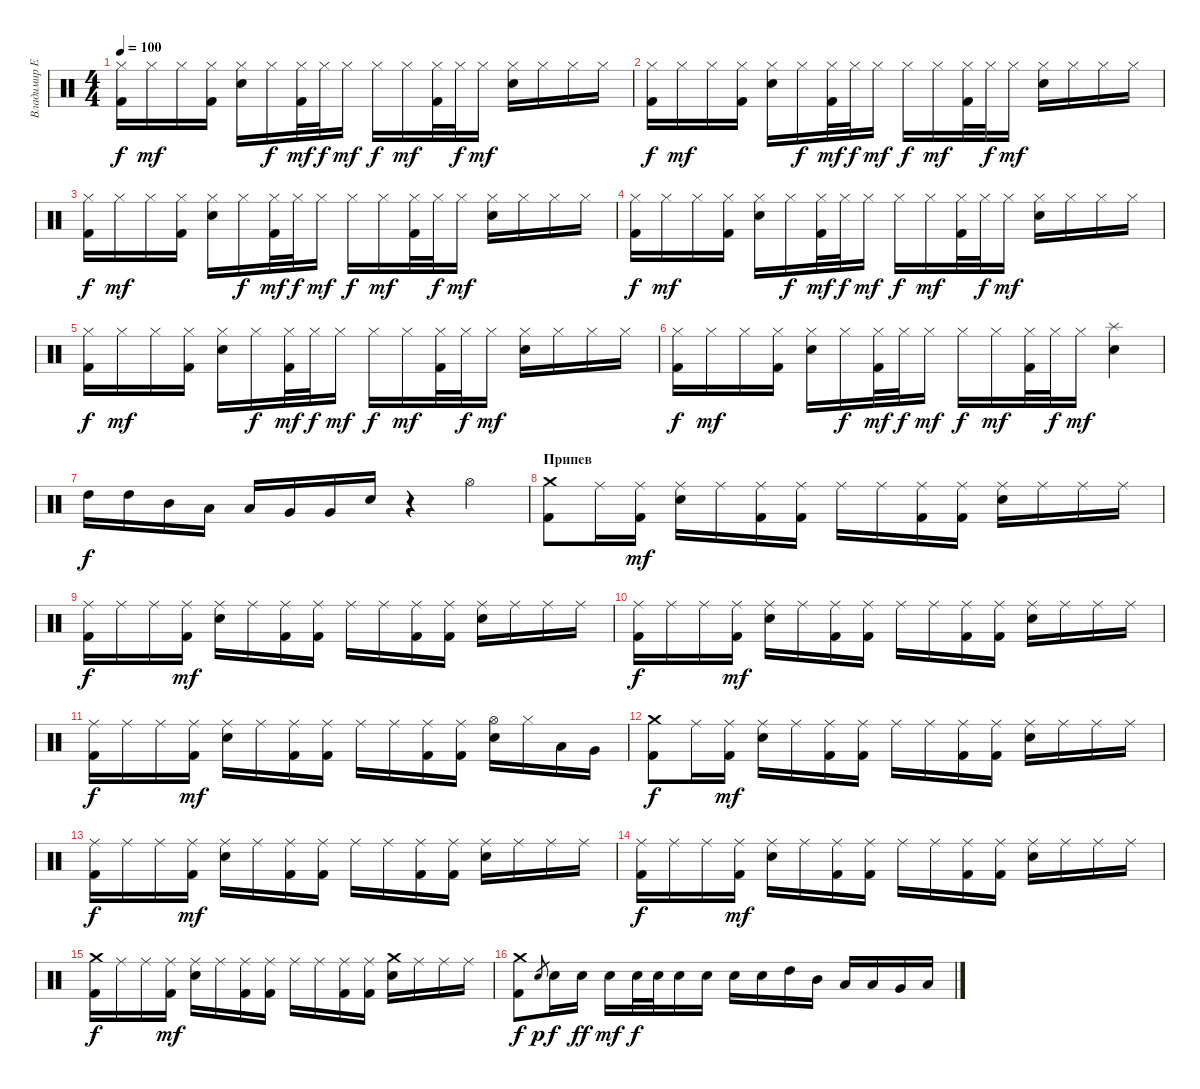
\track ("Владимир Ермаков" "Владимир Е") {instrument percussion}
\staff {score}
\articulation defaults
\ts (4 4)
\tempo 100
\clef neutral
\ks c
("Kick (hit) 2" "Hi-Hat (closed)").16{dy f} "Hi-Hat (closed)".16{dy mf} "Hi-Hat (closed)".16 ("Kick (hit) 2" "Hi-Hat (closed)").16 ("Electric Snare (hit)" "Hi-Hat (closed)").16 "Hi-Hat (closed)".16{dy f} ("Kick (hit) 2" "Hi-Hat (closed)").32{dy mf} "Hi-Hat (closed)".32{dy f} "Hi-Hat (closed)".16{dy mf} "Hi-Hat (closed)".16{dy f} "Hi-Hat (closed)".16{dy mf} ("Kick (hit) 2" "Hi-Hat (closed)").32 "Hi-Hat (closed)".32{dy f} "Hi-Hat (closed)".16{dy mf} ("Electric Snare (hit)" "Hi-Hat (closed)").16 "Hi-Hat (closed)".16 "Hi-Hat (closed)".16 "Hi-Hat (closed)".16 |
("Kick (hit) 2" "Hi-Hat (closed)").16{dy f} "Hi-Hat (closed)".16{dy mf} "Hi-Hat (closed)".16 ("Kick (hit) 2" "Hi-Hat (closed)").16 ("Electric Snare (hit)" "Hi-Hat (closed)").16 "Hi-Hat (closed)".16{dy f} ("Kick (hit) 2" "Hi-Hat (closed)").32{dy mf} "Hi-Hat (closed)".32{dy f} "Hi-Hat (closed)".16{dy mf} "Hi-Hat (closed)".16{dy f} "Hi-Hat (closed)".16{dy mf} ("Kick (hit) 2" "Hi-Hat (closed)").32 "Hi-Hat (closed)".32{dy f} "Hi-Hat (closed)".16{dy mf} ("Electric Snare (hit)" "Hi-Hat (closed)").16 "Hi-Hat (closed)".16 "Hi-Hat (closed)".16 "Hi-Hat (closed)".16 |
("Kick (hit) 2" "Hi-Hat (closed)").16{dy f} "Hi-Hat (closed)".16{dy mf} "Hi-Hat (closed)".16 ("Kick (hit) 2" "Hi-Hat (closed)").16 ("Electric Snare (hit)" "Hi-Hat (closed)").16 "Hi-Hat (closed)".16{dy f} ("Kick (hit) 2" "Hi-Hat (closed)").32{dy mf} "Hi-Hat (closed)".32{dy f} "Hi-Hat (closed)".16{dy mf} "Hi-Hat (closed)".16{dy f} "Hi-Hat (closed)".16{dy mf} ("Kick (hit) 2" "Hi-Hat (closed)").32 "Hi-Hat (closed)".32{dy f} "Hi-Hat (closed)".16{dy mf} ("Electric Snare (hit)" "Hi-Hat (closed)").16 "Hi-Hat (closed)".16 "Hi-Hat (closed)".16 "Hi-Hat (closed)".16 |
("Kick (hit) 2" "Hi-Hat (closed)").16{dy f} "Hi-Hat (closed)".16{dy mf} "Hi-Hat (closed)".16 ("Kick (hit) 2" "Hi-Hat (closed)").16 ("Electric Snare (hit)" "Hi-Hat (closed)").16 "Hi-Hat (closed)".16{dy f} ("Kick (hit) 2" "Hi-Hat (closed)").32{dy mf} "Hi-Hat (closed)".32{dy f} "Hi-Hat (closed)".16{dy mf} "Hi-Hat (closed)".16{dy f} "Hi-Hat (closed)".16{dy mf} ("Kick (hit) 2" "Hi-Hat (closed)").32 "Hi-Hat (closed)".32{dy f} "Hi-Hat (closed)".16{dy mf} ("Electric Snare (hit)" "Hi-Hat (closed)").16 "Hi-Hat (closed)".16 "Hi-Hat (closed)".16 "Hi-Hat (closed)".16 |
("Kick (hit) 2" "Hi-Hat (closed)").16{dy f} "Hi-Hat (closed)".16{dy mf} "Hi-Hat (closed)".16 ("Kick (hit) 2" "Hi-Hat (closed)").16 ("Electric Snare (hit)" "Hi-Hat (closed)").16 "Hi-Hat (closed)".16{dy f} ("Kick (hit) 2" "Hi-Hat (closed)").32{dy mf} "Hi-Hat (closed)".32{dy f} "Hi-Hat (closed)".16{dy mf} "Hi-Hat (closed)".16{dy f} "Hi-Hat (closed)".16{dy mf} ("Kick (hit) 2" "Hi-Hat (closed)").32 "Hi-Hat (closed)".32{dy f} "Hi-Hat (closed)".16{dy mf} ("Electric Snare (hit)" "Hi-Hat (closed)").16 "Hi-Hat (closed)".16 "Hi-Hat (closed)".16 "Hi-Hat (closed)".16 |
("Kick (hit) 2" "Hi-Hat (closed)").16{dy f} "Hi-Hat (closed)".16{dy mf} "Hi-Hat (closed)".16 ("Kick (hit) 2" "Hi-Hat (closed)").16 ("Electric Snare (hit)" "Hi-Hat (closed)").16 "Hi-Hat (closed)".16{dy f} ("Kick (hit) 2" "Hi-Hat (closed)").32{dy mf} "Hi-Hat (closed)".32{dy f} "Hi-Hat (closed)".16{dy mf} "Hi-Hat (closed)".16{dy f} "Hi-Hat (closed)".16{dy mf} ("Kick (hit) 2" "Hi-Hat (closed)").32 "Hi-Hat (closed)".32{dy f} "Hi-Hat (closed)".16{dy mf} ("Electric Snare (hit)" "Splash (hit)").4 |
"High Tom (hit)".16{dy f} "High Tom (hit)".16 "Mid Tom (hit)".16 "Low Tom (hit)".16 "Low Tom (hit)".16 "Very Low Tom (hit)".16 "Very Low Tom (hit)".16 "Electric Snare (hit)".16 r.4 "Hi-Hat (open)".4 |
\section ("" "Припев")
("Crash medium (hit)" "Kick (hit) 2").8 "Ride (middle)".16 ("Ride (middle)" "Kick (hit) 2").16{dy mf} ("Ride (middle)" "Electric Snare (hit)").16 "Ride (middle)".16 ("Ride (middle)" "Kick (hit) 2").16 ("Ride (middle)" "Kick (hit) 2").16 "Ride (middle)".16 "Ride (middle)".16 ("Ride (middle)" "Kick (hit) 2").16 ("Ride (middle)" "Kick (hit) 2").16 ("Ride (middle)" "Electric Snare (hit)").16 "Ride (middle)".16 "Ride (middle)".16 "Ride (middle)".16 |
("Ride (middle)" "Kick (hit) 2").16{dy f} "Ride (middle)".16 "Ride (middle)".16 ("Ride (middle)" "Kick (hit) 2").16{dy mf} ("Ride (middle)" "Electric Snare (hit)").16 "Ride (middle)".16 ("Ride (middle)" "Kick (hit) 2").16 ("Ride (middle)" "Kick (hit) 2").16 "Ride (middle)".16 "Ride (middle)".16 ("Ride (middle)" "Kick (hit) 2").16 ("Ride (middle)" "Kick (hit) 2").16 ("Ride (middle)" "Electric Snare (hit)").16 "Ride (middle)".16 "Ride (middle)".16 "Ride (middle)".16 |
("Ride (middle)" "Kick (hit) 2").16{dy f} "Ride (middle)".16 "Ride (middle)".16 ("Ride (middle)" "Kick (hit) 2").16{dy mf} ("Ride (middle)" "Electric Snare (hit)").16 "Ride (middle)".16 ("Ride (middle)" "Kick (hit) 2").16 ("Ride (middle)" "Kick (hit) 2").16 "Ride (middle)".16 "Ride (middle)".16 ("Ride (middle)" "Kick (hit) 2").16 ("Ride (middle)" "Kick (hit) 2").16 ("Ride (middle)" "Electric Snare (hit)").16 "Ride (middle)".16 "Ride (middle)".16 "Ride (middle)".16 |
("Ride (middle)" "Kick (hit) 2").16{dy f} "Ride (middle)".16 "Ride (middle)".16 ("Ride (middle)" "Kick (hit) 2").16{dy mf} ("Ride (middle)" "Electric Snare (hit)").16 "Ride (middle)".16 ("Ride (middle)" "Kick (hit) 2").16 ("Ride (middle)" "Kick (hit) 2").16 "Ride (middle)".16 "Ride (middle)".16 ("Ride (middle)" "Kick (hit) 2").16 ("Ride (middle)" "Kick (hit) 2").16 ("Hi-Hat (open)" "Electric Snare (hit)").16 "Hi-Hat (closed)".16 "Low Tom (hit)".16 "Very Low Tom (hit)".16 |
("Crash medium (hit)" "Kick (hit) 2").8{dy f} "Ride (middle)".16 ("Ride (middle)" "Kick (hit) 2").16{dy mf} ("Ride (middle)" "Electric Snare (hit)").16 "Ride (middle)".16 ("Ride (middle)" "Kick (hit) 2").16 ("Ride (middle)" "Kick (hit) 2").16 "Ride (middle)".16 "Ride (middle)".16 ("Ride (middle)" "Kick (hit) 2").16 ("Ride (middle)" "Kick (hit) 2").16 ("Ride (middle)" "Electric Snare (hit)").16 "Ride (middle)".16 "Ride (middle)".16 "Ride (middle)".16 |
("Ride (middle)" "Kick (hit) 2").16{dy f} "Ride (middle)".16 "Ride (middle)".16 ("Ride (middle)" "Kick (hit) 2").16{dy mf} ("Ride (middle)" "Electric Snare (hit)").16 "Ride (middle)".16 ("Ride (middle)" "Kick (hit) 2").16 ("Ride (middle)" "Kick (hit) 2").16 "Ride (middle)".16 "Ride (middle)".16 ("Ride (middle)" "Kick (hit) 2").16 ("Ride (middle)" "Kick (hit) 2").16 ("Ride (middle)" "Electric Snare (hit)").16 "Ride (middle)".16 "Ride (middle)".16 "Ride (middle)".16 |
("Ride (middle)" "Kick (hit) 2").16{dy f} "Ride (middle)".16 "Ride (middle)".16 ("Ride (middle)" "Kick (hit) 2").16{dy mf} ("Ride (middle)" "Electric Snare (hit)").16 "Ride (middle)".16 ("Ride (middle)" "Kick (hit) 2").16 ("Ride (middle)" "Kick (hit) 2").16 "Ride (middle)".16 "Ride (middle)".16 ("Ride (middle)" "Kick (hit) 2").16 ("Ride (middle)" "Kick (hit) 2").16 ("Ride (middle)" "Electric Snare (hit)").16 "Ride (middle)".16 "Ride (middle)".16 "Ride (middle)".16 |
("Crash medium (hit)" "Kick (hit) 2").16{dy f} "Ride (middle)".16 "Ride (middle)".16 ("Ride (middle)" "Kick (hit) 2").16{dy mf} ("Ride (middle)" "Electric Snare (hit)").16 "Ride (middle)".16 ("Ride (middle)" "Kick (hit) 2").16 ("Ride (middle)" "Kick (hit) 2").16 "Ride (middle)".16 "Ride (middle)".16 ("Ride (middle)" "Kick (hit) 2").16 ("Ride (middle)" "Kick (hit) 2").16 ("Crash medium (hit)" "Electric Snare (hit)").16 "Ride (middle)".16 "Ride (middle)".16 "Ride (middle)".16 |
("Crash medium (hit)" "Kick (hit) 2").8{dy f} "Electric Snare (hit)".8{gr dy p} "Electric Snare (hit)".16{dy f} "Electric Snare (hit)".16{dy ff} "Electric Snare (hit)".16{dy mf} "Electric Snare (hit)".32{dy f} "Electric Snare (hit)".32 "Electric Snare (hit)".16 "Electric Snare (hit)".16 "Electric Snare (hit)".16 "Electric Snare (hit)".16 "High Tom (hit)".16 "Mid Tom (hit)".16 "Low Tom (hit)".16 "Low Tom (hit)".16 "Very Low Tom (hit)".16 "Low Floor Tom (hit)".16
